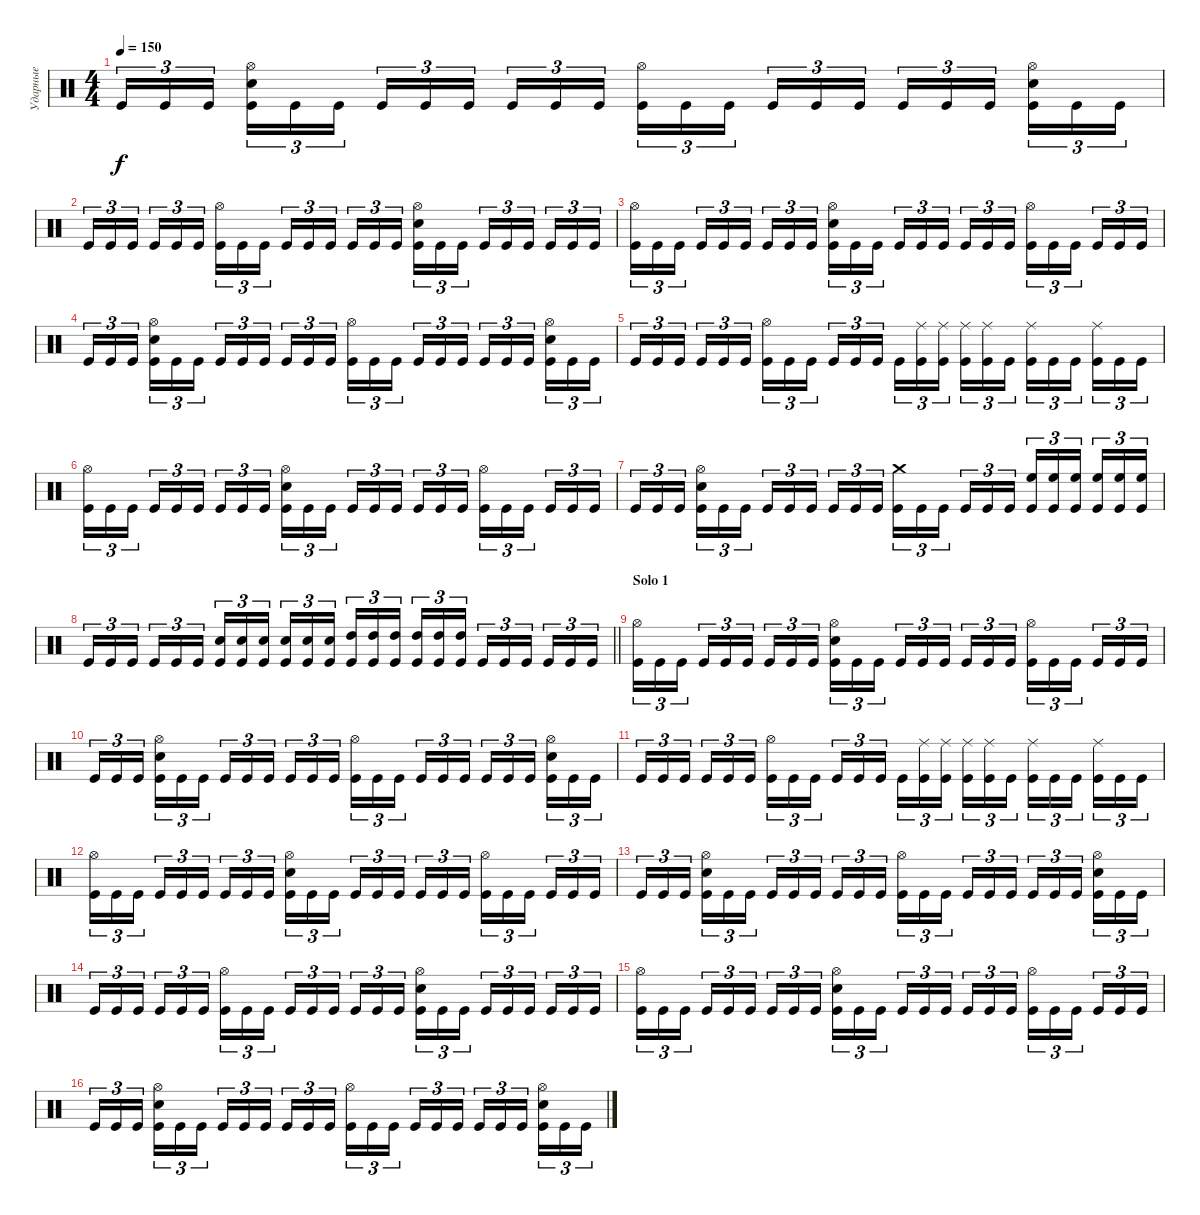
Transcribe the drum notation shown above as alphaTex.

\track ("Ударные" "Ударные") {instrument percussion}
\staff {score}
\articulation defaults
\ts (4 4)
\tempo 150
\clef neutral
\ks c "Kick (hit)".16{tu (3 2) dy f} "Kick (hit)".16{tu (3 2)} "Kick (hit)".16{tu (3 2) beam splitsecondary}
("Snare (hit) 2" "Hi-Hat (open)" "Kick (hit)").16{tu (3 2)} "Kick (hit)".16{tu (3 2)} "Kick (hit)".16{tu (3 2)} "Kick (hit)".16{tu (3 2)} "Kick (hit)".16{tu (3 2)} "Kick (hit)".16{tu (3 2) beam splitsecondary} "Kick (hit)".16{tu (3 2)} "Kick (hit)".16{tu (3 2)} "Kick (hit)".16{tu (3 2)} ("Hi-Hat (open)" "Kick (hit)").16{tu (3 2)} "Kick (hit)".16{tu (3 2)} "Kick (hit)".16{tu (3 2) beam splitsecondary} "Kick (hit)".16{tu (3 2)} "Kick (hit)".16{tu (3 2)} "Kick (hit)".16{tu (3 2)} "Kick (hit)".16{tu (3 2)} "Kick (hit)".16{tu (3 2)} "Kick (hit)".16{tu (3 2) beam splitsecondary} ("Snare (hit) 2" "Hi-Hat (open)" "Kick (hit)").16{tu (3 2)} "Kick (hit)".16{tu (3 2)} "Kick (hit)".16{tu (3 2)} |
"Kick (hit)".16{tu (3 2)} "Kick (hit)".16{tu (3 2)} "Kick (hit)".16{tu (3 2) beam splitsecondary} "Kick (hit)".16{tu (3 2)} "Kick (hit)".16{tu (3 2)} "Kick (hit)".16{tu (3 2)} ("Hi-Hat (open)" "Kick (hit)").16{tu (3 2)} "Kick (hit)".16{tu (3 2)} "Kick (hit)".16{tu (3 2) beam splitsecondary} "Kick (hit)".16{tu (3 2)} "Kick (hit)".16{tu (3 2)} "Kick (hit)".16{tu (3 2)} "Kick (hit)".16{tu (3 2)} "Kick (hit)".16{tu (3 2)} "Kick (hit)".16{tu (3 2) beam splitsecondary} ("Snare (hit) 2" "Hi-Hat (open)" "Kick (hit)").16{tu (3 2)} "Kick (hit)".16{tu (3 2)} "Kick (hit)".16{tu (3 2)} "Kick (hit)".16{tu (3 2)} "Kick (hit)".16{tu (3 2)} "Kick (hit)".16{tu (3 2) beam splitsecondary} "Kick (hit)".16{tu (3 2)} "Kick (hit)".16{tu (3 2)} "Kick (hit)".16{tu (3 2)} |
("Hi-Hat (open)" "Kick (hit)").16{tu (3 2)} "Kick (hit)".16{tu (3 2)} "Kick (hit)".16{tu (3 2) beam splitsecondary} "Kick (hit)".16{tu (3 2)} "Kick (hit)".16{tu (3 2)} "Kick (hit)".16{tu (3 2)} "Kick (hit)".16{tu (3 2)} "Kick (hit)".16{tu (3 2)} "Kick (hit)".16{tu (3 2) beam splitsecondary} ("Snare (hit) 2" "Hi-Hat (open)" "Kick (hit)").16{tu (3 2)} "Kick (hit)".16{tu (3 2)} "Kick (hit)".16{tu (3 2)} "Kick (hit)".16{tu (3 2)} "Kick (hit)".16{tu (3 2)} "Kick (hit)".16{tu (3 2) beam splitsecondary} "Kick (hit)".16{tu (3 2)} "Kick (hit)".16{tu (3 2)} "Kick (hit)".16{tu (3 2)} ("Hi-Hat (open)" "Kick (hit)").16{tu (3 2)} "Kick (hit)".16{tu (3 2)} "Kick (hit)".16{tu (3 2) beam splitsecondary} "Kick (hit)".16{tu (3 2)} "Kick (hit)".16{tu (3 2)} "Kick (hit)".16{tu (3 2)} |
"Kick (hit)".16{tu (3 2)} "Kick (hit)".16{tu (3 2)} "Kick (hit)".16{tu (3 2) beam splitsecondary} ("Snare (hit) 2" "Hi-Hat (open)" "Kick (hit)").16{tu (3 2)} "Kick (hit)".16{tu (3 2)} "Kick (hit)".16{tu (3 2)} "Kick (hit)".16{tu (3 2)} "Kick (hit)".16{tu (3 2)} "Kick (hit)".16{tu (3 2) beam splitsecondary} "Kick (hit)".16{tu (3 2)} "Kick (hit)".16{tu (3 2)} "Kick (hit)".16{tu (3 2)} ("Hi-Hat (open)" "Kick (hit)").16{tu (3 2)} "Kick (hit)".16{tu (3 2)} "Kick (hit)".16{tu (3 2) beam splitsecondary} "Kick (hit)".16{tu (3 2)} "Kick (hit)".16{tu (3 2)} "Kick (hit)".16{tu (3 2)} "Kick (hit)".16{tu (3 2)} "Kick (hit)".16{tu (3 2)} "Kick (hit)".16{tu (3 2) beam splitsecondary} ("Snare (hit) 2" "Hi-Hat (open)" "Kick (hit)").16{tu (3 2)} "Kick (hit)".16{tu (3 2)} "Kick (hit)".16{tu (3 2)} |
"Kick (hit)".16{tu (3 2)} "Kick (hit)".16{tu (3 2)} "Kick (hit)".16{tu (3 2) beam splitsecondary} "Kick (hit)".16{tu (3 2)} "Kick (hit)".16{tu (3 2)} "Kick (hit)".16{tu (3 2)} ("Hi-Hat (open)" "Kick (hit)").16{tu (3 2)} "Kick (hit)".16{tu (3 2)} "Kick (hit)".16{tu (3 2) beam splitsecondary} "Kick (hit)".16{tu (3 2)} "Kick (hit)".16{tu (3 2)} "Kick (hit)".16{tu (3 2)} "Kick (hit)".16{tu (3 2)} ("Ride (middle)" "Kick (hit)").16{tu (3 2)} ("Ride (middle)" "Kick (hit)").16{tu (3 2) beam splitsecondary} ("Ride (middle)" "Kick (hit)").16{tu (3 2)} ("Ride (middle)" "Kick (hit)").16{tu (3 2)} "Kick (hit)".16{tu (3 2)} ("Ride (middle)" "Kick (hit)").16{tu (3 2)} "Kick (hit)".16{tu (3 2)} "Kick (hit)".16{tu (3 2) beam splitsecondary} ("Ride (middle)" "Kick (hit)").16{tu (3 2)} "Kick (hit)".16{tu (3 2)} "Kick (hit)".16{tu (3 2)} |
("Hi-Hat (open)" "Kick (hit)").16{tu (3 2)} "Kick (hit)".16{tu (3 2)} "Kick (hit)".16{tu (3 2) beam splitsecondary} "Kick (hit)".16{tu (3 2)} "Kick (hit)".16{tu (3 2)} "Kick (hit)".16{tu (3 2)} "Kick (hit)".16{tu (3 2)} "Kick (hit)".16{tu (3 2)} "Kick (hit)".16{tu (3 2) beam splitsecondary} ("Snare (hit) 2" "Hi-Hat (open)" "Kick (hit)").16{tu (3 2)} "Kick (hit)".16{tu (3 2)} "Kick (hit)".16{tu (3 2)} "Kick (hit)".16{tu (3 2)} "Kick (hit)".16{tu (3 2)} "Kick (hit)".16{tu (3 2) beam splitsecondary} "Kick (hit)".16{tu (3 2)} "Kick (hit)".16{tu (3 2)} "Kick (hit)".16{tu (3 2)} ("Hi-Hat (open)" "Kick (hit)").16{tu (3 2)} "Kick (hit)".16{tu (3 2)} "Kick (hit)".16{tu (3 2) beam splitsecondary} "Kick (hit)".16{tu (3 2)} "Kick (hit)".16{tu (3 2)} "Kick (hit)".16{tu (3 2)} |
"Kick (hit)".16{tu (3 2)} "Kick (hit)".16{tu (3 2)} "Kick (hit)".16{tu (3 2) beam splitsecondary} ("Snare (hit) 2" "Hi-Hat (open)" "Kick (hit)").16{tu (3 2)} "Kick (hit)".16{tu (3 2)} "Kick (hit)".16{tu (3 2)} "Kick (hit)".16{tu (3 2)} "Kick (hit)".16{tu (3 2)} "Kick (hit)".16{tu (3 2) beam splitsecondary} "Kick (hit)".16{tu (3 2)} "Kick (hit)".16{tu (3 2)} "Kick (hit)".16{tu (3 2)} ("Crash medium (hit)" "Kick (hit)").16{tu (3 2)} "Kick (hit)".16{tu (3 2)} "Kick (hit)".16{tu (3 2) beam splitsecondary} "Kick (hit)".16{tu (3 2)} "Kick (hit)".16{tu (3 2)} "Kick (hit)".16{tu (3 2)} ("High Floor Tom (hit)" "Kick (hit)").16{tu (3 2)} ("High Floor Tom (hit)" "Kick (hit)").16{tu (3 2)} ("High Floor Tom (hit)" "Kick (hit)").16{tu (3 2) beam splitsecondary} ("High Floor Tom (hit)" "Kick (hit)").16{tu (3 2)} ("High Floor Tom (hit)" "Kick (hit)").16{tu (3 2)} ("High Floor Tom (hit)" "Kick (hit)").16{tu (3 2)} |
\barLineRight lightlight "Kick (hit)".16{tu (3 2)} "Kick (hit)".16{tu (3 2)} "Kick (hit)".16{tu (3 2) beam splitsecondary} "Kick (hit)".16{tu (3 2)} "Kick (hit)".16{tu (3 2)} "Kick (hit)".16{tu (3 2)}
("Snare (hit) 2" "Kick (hit)").16{tu (3 2)} ("Snare (hit) 2" "Kick (hit)").16{tu (3 2)} ("Snare (hit) 2" "Kick (hit)").16{tu (3 2) beam splitsecondary} ("Snare (hit) 2" "Kick (hit)").16{tu (3 2)} ("Snare (hit) 2" "Kick (hit)").16{tu (3 2)} ("Snare (hit) 2" "Kick (hit)").16{tu (3 2)} ("High Tom (hit)" "Kick (hit)").16{tu (3 2)} ("High Tom (hit)" "Kick (hit)").16{tu (3 2)} ("High Tom (hit)" "Kick (hit)").16{tu (3 2) beam splitsecondary} ("High Tom (hit)" "Kick (hit)").16{tu (3 2)} ("High Tom (hit)" "Kick (hit)").16{tu (3 2)} ("High Tom (hit)" "Kick (hit)").16{tu (3 2)} "Kick (hit)".16{tu (3 2)} "Kick (hit)".16{tu (3 2)} "Kick (hit)".16{tu (3 2) beam splitsecondary} "Kick (hit)".16{tu (3 2)} "Kick (hit)".16{tu (3 2)} "Kick (hit)".16{tu (3 2)} |
\section ("" "Solo 1")
("Hi-Hat (open)" "Kick (hit)").16{tu (3 2)} "Kick (hit)".16{tu (3 2)} "Kick (hit)".16{tu (3 2) beam splitsecondary} "Kick (hit)".16{tu (3 2)} "Kick (hit)".16{tu (3 2)} "Kick (hit)".16{tu (3 2)} "Kick (hit)".16{tu (3 2)} "Kick (hit)".16{tu (3 2)} "Kick (hit)".16{tu (3 2) beam splitsecondary} ("Snare (hit) 2" "Hi-Hat (open)" "Kick (hit)").16{tu (3 2)} "Kick (hit)".16{tu (3 2)} "Kick (hit)".16{tu (3 2)} "Kick (hit)".16{tu (3 2)} "Kick (hit)".16{tu (3 2)} "Kick (hit)".16{tu (3 2) beam splitsecondary} "Kick (hit)".16{tu (3 2)} "Kick (hit)".16{tu (3 2)} "Kick (hit)".16{tu (3 2)} ("Hi-Hat (open)" "Kick (hit)").16{tu (3 2)} "Kick (hit)".16{tu (3 2)} "Kick (hit)".16{tu (3 2) beam splitsecondary} "Kick (hit)".16{tu (3 2)} "Kick (hit)".16{tu (3 2)} "Kick (hit)".16{tu (3 2)} |
"Kick (hit)".16{tu (3 2)} "Kick (hit)".16{tu (3 2)} "Kick (hit)".16{tu (3 2) beam splitsecondary} ("Snare (hit) 2" "Hi-Hat (open)" "Kick (hit)").16{tu (3 2)} "Kick (hit)".16{tu (3 2)} "Kick (hit)".16{tu (3 2)} "Kick (hit)".16{tu (3 2)} "Kick (hit)".16{tu (3 2)} "Kick (hit)".16{tu (3 2) beam splitsecondary} "Kick (hit)".16{tu (3 2)} "Kick (hit)".16{tu (3 2)} "Kick (hit)".16{tu (3 2)} ("Hi-Hat (open)" "Kick (hit)").16{tu (3 2)} "Kick (hit)".16{tu (3 2)} "Kick (hit)".16{tu (3 2) beam splitsecondary} "Kick (hit)".16{tu (3 2)} "Kick (hit)".16{tu (3 2)} "Kick (hit)".16{tu (3 2)} "Kick (hit)".16{tu (3 2)} "Kick (hit)".16{tu (3 2)} "Kick (hit)".16{tu (3 2) beam splitsecondary} ("Snare (hit) 2" "Hi-Hat (open)" "Kick (hit)").16{tu (3 2)} "Kick (hit)".16{tu (3 2)} "Kick (hit)".16{tu (3 2)} |
"Kick (hit)".16{tu (3 2)} "Kick (hit)".16{tu (3 2)} "Kick (hit)".16{tu (3 2) beam splitsecondary} "Kick (hit)".16{tu (3 2)} "Kick (hit)".16{tu (3 2)} "Kick (hit)".16{tu (3 2)} ("Hi-Hat (open)" "Kick (hit)").16{tu (3 2)} "Kick (hit)".16{tu (3 2)} "Kick (hit)".16{tu (3 2) beam splitsecondary} "Kick (hit)".16{tu (3 2)} "Kick (hit)".16{tu (3 2)} "Kick (hit)".16{tu (3 2)} "Kick (hit)".16{tu (3 2)} ("Ride (middle)" "Kick (hit)").16{tu (3 2)} ("Ride (middle)" "Kick (hit)").16{tu (3 2) beam splitsecondary} ("Ride (middle)" "Kick (hit)").16{tu (3 2)} ("Ride (middle)" "Kick (hit)").16{tu (3 2)} "Kick (hit)".16{tu (3 2)} ("Ride (middle)" "Kick (hit)").16{tu (3 2)} "Kick (hit)".16{tu (3 2)} "Kick (hit)".16{tu (3 2) beam splitsecondary} ("Ride (middle)" "Kick (hit)").16{tu (3 2)} "Kick (hit)".16{tu (3 2)} "Kick (hit)".16{tu (3 2)} |
("Hi-Hat (open)" "Kick (hit)").16{tu (3 2)} "Kick (hit)".16{tu (3 2)} "Kick (hit)".16{tu (3 2) beam splitsecondary} "Kick (hit)".16{tu (3 2)} "Kick (hit)".16{tu (3 2)} "Kick (hit)".16{tu (3 2)} "Kick (hit)".16{tu (3 2)} "Kick (hit)".16{tu (3 2)} "Kick (hit)".16{tu (3 2) beam splitsecondary} ("Snare (hit) 2" "Hi-Hat (open)" "Kick (hit)").16{tu (3 2)} "Kick (hit)".16{tu (3 2)} "Kick (hit)".16{tu (3 2)} "Kick (hit)".16{tu (3 2)} "Kick (hit)".16{tu (3 2)} "Kick (hit)".16{tu (3 2) beam splitsecondary} "Kick (hit)".16{tu (3 2)} "Kick (hit)".16{tu (3 2)} "Kick (hit)".16{tu (3 2)} ("Hi-Hat (open)" "Kick (hit)").16{tu (3 2)} "Kick (hit)".16{tu (3 2)} "Kick (hit)".16{tu (3 2) beam splitsecondary} "Kick (hit)".16{tu (3 2)} "Kick (hit)".16{tu (3 2)} "Kick (hit)".16{tu (3 2)} |
"Kick (hit)".16{tu (3 2)} "Kick (hit)".16{tu (3 2)} "Kick (hit)".16{tu (3 2) beam splitsecondary} ("Snare (hit) 2" "Hi-Hat (open)" "Kick (hit)").16{tu (3 2)} "Kick (hit)".16{tu (3 2)} "Kick (hit)".16{tu (3 2)} "Kick (hit)".16{tu (3 2)} "Kick (hit)".16{tu (3 2)} "Kick (hit)".16{tu (3 2) beam splitsecondary} "Kick (hit)".16{tu (3 2)} "Kick (hit)".16{tu (3 2)} "Kick (hit)".16{tu (3 2)} ("Hi-Hat (open)" "Kick (hit)").16{tu (3 2)} "Kick (hit)".16{tu (3 2)} "Kick (hit)".16{tu (3 2) beam splitsecondary} "Kick (hit)".16{tu (3 2)} "Kick (hit)".16{tu (3 2)} "Kick (hit)".16{tu (3 2)} "Kick (hit)".16{tu (3 2)} "Kick (hit)".16{tu (3 2)} "Kick (hit)".16{tu (3 2) beam splitsecondary} ("Snare (hit) 2" "Hi-Hat (open)" "Kick (hit)").16{tu (3 2)} "Kick (hit)".16{tu (3 2)} "Kick (hit)".16{tu (3 2)} |
"Kick (hit)".16{tu (3 2)} "Kick (hit)".16{tu (3 2)} "Kick (hit)".16{tu (3 2) beam splitsecondary} "Kick (hit)".16{tu (3 2)} "Kick (hit)".16{tu (3 2)} "Kick (hit)".16{tu (3 2)} ("Hi-Hat (open)" "Kick (hit)").16{tu (3 2)} "Kick (hit)".16{tu (3 2)} "Kick (hit)".16{tu (3 2) beam splitsecondary} "Kick (hit)".16{tu (3 2)} "Kick (hit)".16{tu (3 2)} "Kick (hit)".16{tu (3 2)} "Kick (hit)".16{tu (3 2)} "Kick (hit)".16{tu (3 2)} "Kick (hit)".16{tu (3 2) beam splitsecondary} ("Snare (hit) 2" "Hi-Hat (open)" "Kick (hit)").16{tu (3 2)} "Kick (hit)".16{tu (3 2)} "Kick (hit)".16{tu (3 2)} "Kick (hit)".16{tu (3 2)} "Kick (hit)".16{tu (3 2)} "Kick (hit)".16{tu (3 2) beam splitsecondary} "Kick (hit)".16{tu (3 2)} "Kick (hit)".16{tu (3 2)} "Kick (hit)".16{tu (3 2)} |
("Hi-Hat (open)" "Kick (hit)").16{tu (3 2)} "Kick (hit)".16{tu (3 2)} "Kick (hit)".16{tu (3 2) beam splitsecondary} "Kick (hit)".16{tu (3 2)} "Kick (hit)".16{tu (3 2)} "Kick (hit)".16{tu (3 2)} "Kick (hit)".16{tu (3 2)} "Kick (hit)".16{tu (3 2)} "Kick (hit)".16{tu (3 2) beam splitsecondary} ("Snare (hit) 2" "Hi-Hat (open)" "Kick (hit)").16{tu (3 2)} "Kick (hit)".16{tu (3 2)} "Kick (hit)".16{tu (3 2)} "Kick (hit)".16{tu (3 2)} "Kick (hit)".16{tu (3 2)} "Kick (hit)".16{tu (3 2) beam splitsecondary} "Kick (hit)".16{tu (3 2)} "Kick (hit)".16{tu (3 2)} "Kick (hit)".16{tu (3 2)} ("Hi-Hat (open)" "Kick (hit)").16{tu (3 2)} "Kick (hit)".16{tu (3 2)} "Kick (hit)".16{tu (3 2) beam splitsecondary} "Kick (hit)".16{tu (3 2)} "Kick (hit)".16{tu (3 2)} "Kick (hit)".16{tu (3 2)} |
"Kick (hit)".16{tu (3 2)} "Kick (hit)".16{tu (3 2)} "Kick (hit)".16{tu (3 2) beam splitsecondary} ("Snare (hit) 2" "Hi-Hat (open)" "Kick (hit)").16{tu (3 2)} "Kick (hit)".16{tu (3 2)} "Kick (hit)".16{tu (3 2)} "Kick (hit)".16{tu (3 2)} "Kick (hit)".16{tu (3 2)} "Kick (hit)".16{tu (3 2) beam splitsecondary} "Kick (hit)".16{tu (3 2)} "Kick (hit)".16{tu (3 2)} "Kick (hit)".16{tu (3 2)} ("Hi-Hat (open)" "Kick (hit)").16{tu (3 2)} "Kick (hit)".16{tu (3 2)} "Kick (hit)".16{tu (3 2) beam splitsecondary} "Kick (hit)".16{tu (3 2)} "Kick (hit)".16{tu (3 2)} "Kick (hit)".16{tu (3 2)} "Kick (hit)".16{tu (3 2)} "Kick (hit)".16{tu (3 2)} "Kick (hit)".16{tu (3 2) beam splitsecondary} ("Snare (hit) 2" "Hi-Hat (open)" "Kick (hit)").16{tu (3 2)} "Kick (hit)".16{tu (3 2)} "Kick (hit)".16{tu (3 2)}
